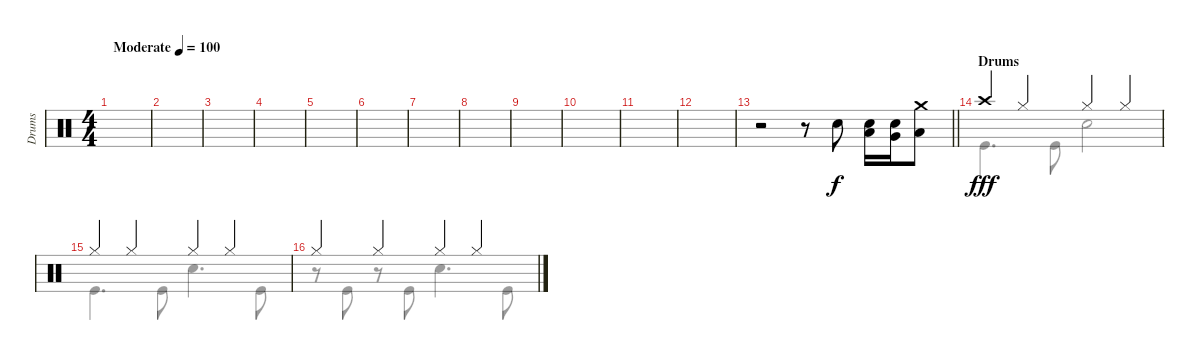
\track ("Drums" "Drums") {instrument percussion}
\staff {score}
\articulation defaults
\voice
\ts (4 4)
\tempo (100 "Moderate")
\clef neutral
\ks c
|
|
|
|
|
|
|
|
|
|
|
|
\barLineRight lightlight
r.2 r.8 "Snare (hit) 2".8 ("Snare (hit) 2" "Low Tom (hit)").16 ("Snare (hit) 2" "Very Low Tom (hit)").16 ("Crash medium (hit)" "Low Floor Tom (hit)").8 |
\section ("" "Drums")
"Crash high (hit)".4{dy fff} "Hi-Hat (closed)".4 "Hi-Hat (closed)".4 "Hi-Hat (closed)".4 |
"Hi-Hat (closed)".4 "Hi-Hat (closed)".4 "Hi-Hat (closed)".4 "Hi-Hat (closed)".4 |
"Hi-Hat (closed)".4 "Hi-Hat (closed)".4 "Hi-Hat (closed)".4 "Hi-Hat (closed)".4
\voice
\clef neutral
\ottava regular
\simile none
\ks c
|
|
|
|
|
|
|
|
|
|
|
|
\barLineRight lightlight
|
"Kick (hit)".4{d} "Kick (hit)".8 "Snare (hit) 2".2 |
"Kick (hit)".4{d} "Kick (hit)".8 "Snare (hit) 2".4{d} "Kick (hit)".8 |
r.8 "Kick (hit)".8 r.8 "Kick (hit)".8 "Snare (hit) 2".4{d} "Kick (hit)".8
